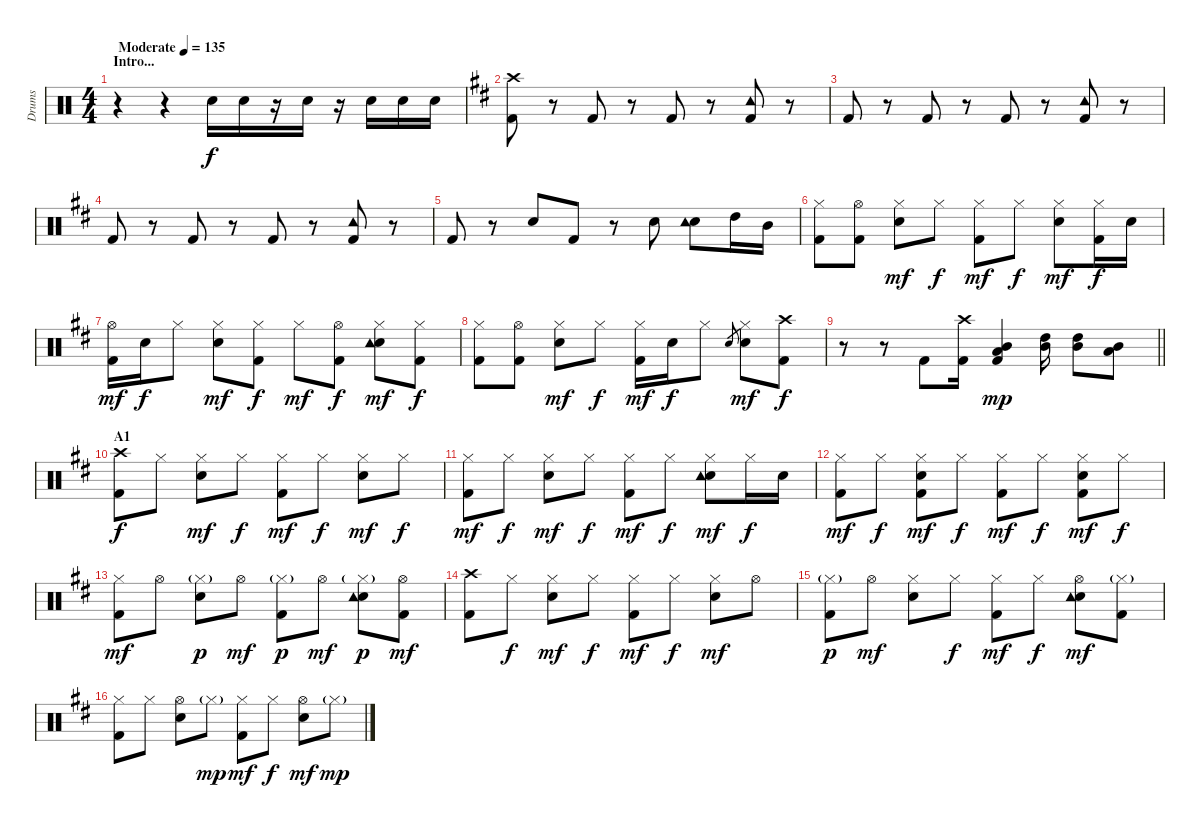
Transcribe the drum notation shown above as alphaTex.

\track ("Drums" "Drums") {instrument percussion}
\staff {score}
\articulation defaults
\ts (4 4)
\section ("" "Intro...")
\tempo (135 "Moderate")
\clef neutral
\ks c
r.4{dy f} r.4 "Electric Snare (hit)".16 "Electric Snare (hit)".16 r.16 "Electric Snare (hit)".16 r.16 "Electric Snare (hit)".16 "Electric Snare (hit)".16 "Electric Snare (hit)".16 |
\ks d
("Crash high (hit)" "Kick (hit) 2").8 r.8 "Kick (hit) 2".8 r.8 "Kick (hit) 2".8 r.8 ("Kick (hit) 2" "Tambourine (hit)").8 r.8 |
"Kick (hit) 2".8 r.8 "Kick (hit) 2".8 r.8 "Kick (hit) 2".8 r.8 ("Kick (hit) 2" "Tambourine (hit)").8 r.8 |
"Kick (hit) 2".8 r.8 "Kick (hit) 2".8 r.8 "Kick (hit) 2".8 r.8 ("Kick (hit) 2" "Tambourine (hit)").8 r.8 |
"Kick (hit) 2".8 r.8 "Electric Snare (hit)".8 "Kick (hit) 2".8 r.8 "Electric Snare (hit)".8 ("Electric Snare (hit)" "Tambourine (hit)").8 "High Tom (hit)".16 "Mid Tom (hit)".16 |
("Hi-Hat (closed)" "Kick (hit) 2").8 ("Hi-Hat (open)" "Kick (hit) 2").8 ("Hi-Hat (closed)" "Electric Snare (hit)").8{dy mf} "Hi-Hat (closed)".8{dy f} ("Hi-Hat (closed)" "Kick (hit) 2").8{dy mf} "Hi-Hat (closed)".8{dy f} ("Hi-Hat (closed)" "Electric Snare (hit)").8{dy mf} ("Hi-Hat (closed)" "Kick (hit) 2").16{dy f} "Electric Snare (hit)".16 |
("Hi-Hat (open)" "Kick (hit) 2").16{dy mf} "Electric Snare (hit)".16{dy f} "Hi-Hat (closed)".8 ("Hi-Hat (closed)" "Electric Snare (hit)").8{dy mf} ("Hi-Hat (closed)" "Kick (hit) 2").8{dy f} "Hi-Hat (closed)".8{dy mf} ("Hi-Hat (open)" "Kick (hit) 2").8{dy f} ("Hi-Hat (closed)" "Electric Snare (hit)" "Tambourine (hit)").8{dy mf} ("Hi-Hat (closed)" "Kick (hit) 2").8{dy f} |
("Hi-Hat (closed)" "Kick (hit) 2").8 ("Hi-Hat (open)" "Kick (hit) 2").8 ("Hi-Hat (closed)" "Electric Snare (hit)").8{dy mf} "Hi-Hat (closed)".8{dy f} ("Hi-Hat (closed)" "Kick (hit) 2").16{dy mf} "Electric Snare (hit)".16{dy f} "Hi-Hat (closed)".8 "Electric Snare (hit)".8{gr} ("Hi-Hat (closed)" "Electric Snare (hit)").8{dy mf} ("Crash high (hit)" "Kick (hit) 2").8{dy f} |
\barLineRight lightlight
r.8 r.8 "Kick (hit) 2".8 ("Crash high (hit)" "Kick (hit) 2").16 ("Mid Tom (hit)" "Low Tom (hit)" "Kick (hit) 2").4{dy mp} ("High Tom (hit)" "Mid Tom (hit)").16 ("High Tom (hit)" "Mid Tom (hit)").8 ("Mid Tom (hit)" "Low Tom (hit)").8 |
\section ("" "A1")
("Crash high (hit)" "Kick (hit) 2").8{dy f} "Hi-Hat (closed)".8 ("Hi-Hat (closed)" "Electric Snare (hit)").8{dy mf} "Hi-Hat (closed)".8{dy f} ("Hi-Hat (closed)" "Kick (hit) 2").8{dy mf} "Hi-Hat (closed)".8{dy f} ("Hi-Hat (closed)" "Electric Snare (hit)").8{dy mf} "Hi-Hat (closed)".8{dy f} |
("Hi-Hat (closed)" "Kick (hit) 2").8{dy mf} "Hi-Hat (closed)".8{dy f} ("Hi-Hat (closed)" "Electric Snare (hit)").8{dy mf} "Hi-Hat (closed)".8{dy f} ("Hi-Hat (closed)" "Kick (hit) 2").8{dy mf} "Hi-Hat (closed)".8{dy f} ("Hi-Hat (closed)" "Electric Snare (hit)" "Tambourine (hit)").8{dy mf} "Hi-Hat (closed)".16{dy f} "Electric Snare (hit)".16 |
("Hi-Hat (closed)" "Kick (hit) 2").8{dy mf} "Hi-Hat (closed)".8{dy f} ("Hi-Hat (closed)" "Electric Snare (hit)" "Kick (hit) 2").8{dy mf} "Hi-Hat (closed)".8{dy f} ("Hi-Hat (closed)" "Kick (hit) 2").8{dy mf} "Hi-Hat (closed)".8{dy f} ("Hi-Hat (closed)" "Electric Snare (hit)" "Kick (hit) 2").8{dy mf} "Hi-Hat (closed)".8{dy f} |
("Hi-Hat (closed)" "Kick (hit) 2").8{dy mf} "Hi-Hat (open)".8 ("Hi-Hat (closed)"{g} "Electric Snare (hit)").8{dy p} "Hi-Hat (open)".8{dy mf} ("Hi-Hat (closed)"{g} "Kick (hit) 2").8{dy p} "Hi-Hat (open)".8{dy mf} ("Hi-Hat (closed)"{g} "Electric Snare (hit)" "Tambourine (hit)").8{dy p} ("Hi-Hat (open)" "Kick (hit) 2").8{dy mf} |
("Crash high (hit)" "Kick (hit) 2").8 "Hi-Hat (closed)".8{dy f} ("Hi-Hat (closed)" "Electric Snare (hit)").8{dy mf} "Hi-Hat (closed)".8{dy f} ("Hi-Hat (closed)" "Kick (hit) 2").8{dy mf} "Hi-Hat (closed)".8{dy f} ("Hi-Hat (closed)" "Electric Snare (hit)").8{dy mf} "Hi-Hat (open)".8 |
("Hi-Hat (closed)"{g} "Kick (hit) 2").8{dy p} "Hi-Hat (open)".8{dy mf} ("Hi-Hat (closed)" "Electric Snare (hit)").8 "Hi-Hat (closed)".8{dy f} ("Hi-Hat (closed)" "Kick (hit) 2").8{dy mf} "Hi-Hat (closed)".8{dy f} ("Hi-Hat (open)" "Electric Snare (hit)" "Tambourine (hit)").8{dy mf} ("Hi-Hat (closed)"{g} "Kick (hit) 2").8 |
("Hi-Hat (closed)" "Kick (hit) 2").8 "Hi-Hat (closed)".8 ("Hi-Hat (open)" "Electric Snare (hit)").8 "Hi-Hat (closed)"{g}.8{dy mp} ("Hi-Hat (closed)" "Kick (hit) 2").8{dy mf} "Hi-Hat (closed)".8{dy f} ("Hi-Hat (open)" "Electric Snare (hit)").8{dy mf} "Hi-Hat (closed)"{g}.8{dy mp}
